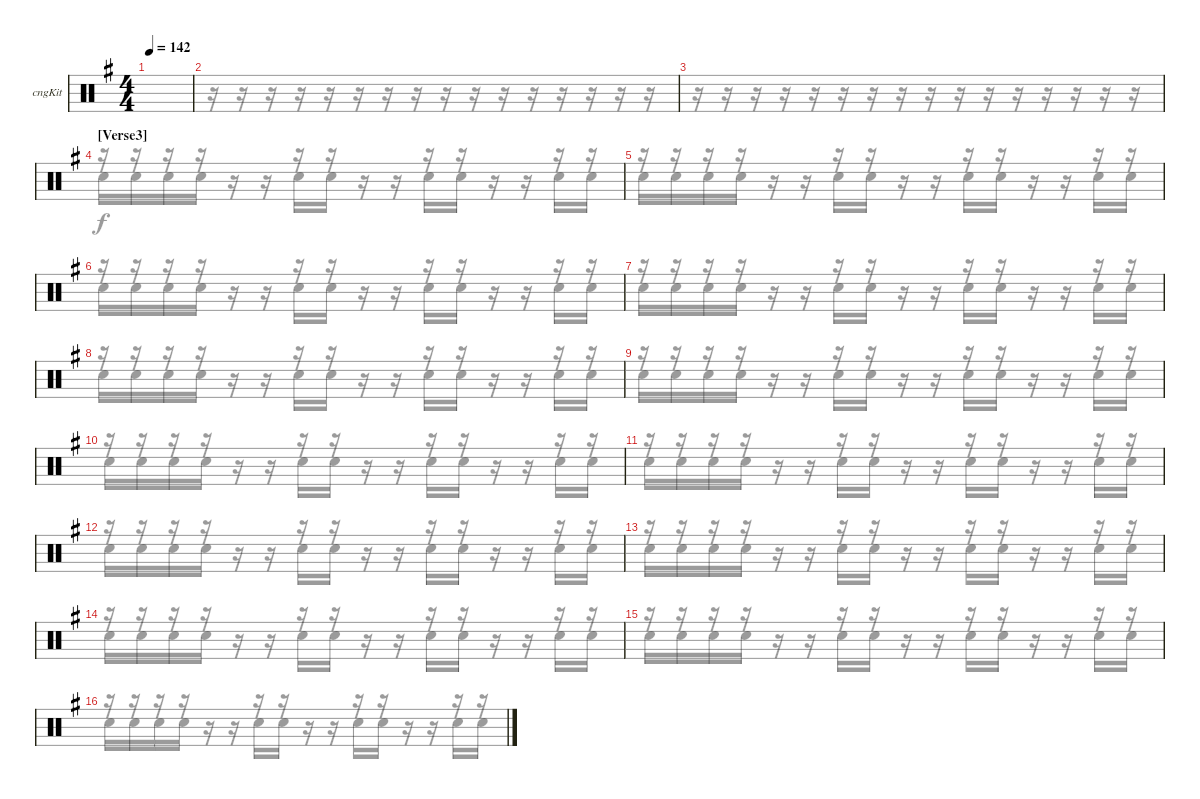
\bracketExtendMode groupsimilarinstruments
\firstSystemTrackNameOrientation horizontal
\otherSystemsTrackNameOrientation horizontal
\track ("Congas" "cngKit") {instrument percussion}
\staff {score}
\articulation defaults
\voice
\ts (4 4)
\tempo 142
\clef neutral
\ks eminor
|
|
|
\section ("" "[Verse3]")
|
|
|
|
|
|
|
|
|
|
|
|
\voice
\clef neutral
\ks eminor
|
r.16 r.16 r.16 r.16 r.16 r.16 r.16 r.16 r.16 r.16 r.16 r.16 r.16 r.16 r.16 r.16 |
r.16 r.16 r.16 r.16 r.16 r.16 r.16 r.16 r.16 r.16 r.16 r.16 r.16 r.16 r.16 r.16 |
r.16 r.16 r.16 r.16 r.16 r.16 r.16 r.16 r.16 r.16 r.16 r.16 r.16 r.16 r.16 r.16 |
r.16 r.16 r.16 r.16 r.16 r.16 r.16 r.16 r.16 r.16 r.16 r.16 r.16 r.16 r.16 r.16 |
r.16 r.16 r.16 r.16 r.16 r.16 r.16 r.16 r.16 r.16 r.16 r.16 r.16 r.16 r.16 r.16 |
r.16 r.16 r.16 r.16 r.16 r.16 r.16 r.16 r.16 r.16 r.16 r.16 r.16 r.16 r.16 r.16 |
r.16 r.16 r.16 r.16 r.16 r.16 r.16 r.16 r.16 r.16 r.16 r.16 r.16 r.16 r.16 r.16 |
r.16 r.16 r.16 r.16 r.16 r.16 r.16 r.16 r.16 r.16 r.16 r.16 r.16 r.16 r.16 r.16 |
r.16 r.16 r.16 r.16 r.16 r.16 r.16 r.16 r.16 r.16 r.16 r.16 r.16 r.16 r.16 r.16 |
r.16 r.16 r.16 r.16 r.16 r.16 r.16 r.16 r.16 r.16 r.16 r.16 r.16 r.16 r.16 r.16 |
r.16 r.16 r.16 r.16 r.16 r.16 r.16 r.16 r.16 r.16 r.16 r.16 r.16 r.16 r.16 r.16 |
r.16 r.16 r.16 r.16 r.16 r.16 r.16 r.16 r.16 r.16 r.16 r.16 r.16 r.16 r.16 r.16 |
r.16 r.16 r.16 r.16 r.16 r.16 r.16 r.16 r.16 r.16 r.16 r.16 r.16 r.16 r.16 r.16 |
r.16 r.16 r.16 r.16 r.16 r.16 r.16 r.16 r.16 r.16 r.16 r.16 r.16 r.16 r.16 r.16 |
r.16 r.16 r.16 r.16 r.16 r.16 r.16 r.16 r.16 r.16 r.16 r.16 r.16 r.16 r.16 r.16
\voice
\clef neutral
\ottava regular
\simile none
\ks eminor
|
|
|
"Snare (hit) 2".16 "Snare (hit) 2".16 "Snare (hit) 2".16 "Snare (hit) 2".16 r.16 r.16 "Snare (hit) 2".16 "Snare (hit) 2".16 r.16 r.16 "Snare (hit) 2".16 "Snare (hit) 2".16 r.16 r.16 "Snare (hit) 2".16 "Snare (hit) 2".16 |
"Snare (hit) 2".16 "Snare (hit) 2".16 "Snare (hit) 2".16 "Snare (hit) 2".16 r.16 r.16 "Snare (hit) 2".16 "Snare (hit) 2".16 r.16 r.16 "Snare (hit) 2".16 "Snare (hit) 2".16 r.16 r.16 "Snare (hit) 2".16 "Snare (hit) 2".16 |
"Snare (hit) 2".16 "Snare (hit) 2".16 "Snare (hit) 2".16 "Snare (hit) 2".16 r.16 r.16 "Snare (hit) 2".16 "Snare (hit) 2".16 r.16 r.16 "Snare (hit) 2".16 "Snare (hit) 2".16 r.16 r.16 "Snare (hit) 2".16 "Snare (hit) 2".16 |
"Snare (hit) 2".16 "Snare (hit) 2".16 "Snare (hit) 2".16 "Snare (hit) 2".16 r.16 r.16 "Snare (hit) 2".16 "Snare (hit) 2".16 r.16 r.16 "Snare (hit) 2".16 "Snare (hit) 2".16 r.16 r.16 "Snare (hit) 2".16 "Snare (hit) 2".16 |
"Snare (hit) 2".16 "Snare (hit) 2".16 "Snare (hit) 2".16 "Snare (hit) 2".16 r.16 r.16 "Snare (hit) 2".16 "Snare (hit) 2".16 r.16 r.16 "Snare (hit) 2".16 "Snare (hit) 2".16 r.16 r.16 "Snare (hit) 2".16 "Snare (hit) 2".16 |
"Snare (hit) 2".16 "Snare (hit) 2".16 "Snare (hit) 2".16 "Snare (hit) 2".16 r.16 r.16 "Snare (hit) 2".16 "Snare (hit) 2".16 r.16 r.16 "Snare (hit) 2".16 "Snare (hit) 2".16 r.16 r.16 "Snare (hit) 2".16 "Snare (hit) 2".16 |
"Snare (hit) 2".16 "Snare (hit) 2".16 "Snare (hit) 2".16 "Snare (hit) 2".16 r.16 r.16 "Snare (hit) 2".16 "Snare (hit) 2".16 r.16 r.16 "Snare (hit) 2".16 "Snare (hit) 2".16 r.16 r.16 "Snare (hit) 2".16 "Snare (hit) 2".16 |
"Snare (hit) 2".16 "Snare (hit) 2".16 "Snare (hit) 2".16 "Snare (hit) 2".16 r.16 r.16 "Snare (hit) 2".16 "Snare (hit) 2".16 r.16 r.16 "Snare (hit) 2".16 "Snare (hit) 2".16 r.16 r.16 "Snare (hit) 2".16 "Snare (hit) 2".16 |
"Snare (hit) 2".16 "Snare (hit) 2".16 "Snare (hit) 2".16 "Snare (hit) 2".16 r.16 r.16 "Snare (hit) 2".16 "Snare (hit) 2".16 r.16 r.16 "Snare (hit) 2".16 "Snare (hit) 2".16 r.16 r.16 "Snare (hit) 2".16 "Snare (hit) 2".16 |
"Snare (hit) 2".16 "Snare (hit) 2".16 "Snare (hit) 2".16 "Snare (hit) 2".16 r.16 r.16 "Snare (hit) 2".16 "Snare (hit) 2".16 r.16 r.16 "Snare (hit) 2".16 "Snare (hit) 2".16 r.16 r.16 "Snare (hit) 2".16 "Snare (hit) 2".16 |
"Snare (hit) 2".16 "Snare (hit) 2".16 "Snare (hit) 2".16 "Snare (hit) 2".16 r.16 r.16 "Snare (hit) 2".16 "Snare (hit) 2".16 r.16 r.16 "Snare (hit) 2".16 "Snare (hit) 2".16 r.16 r.16 "Snare (hit) 2".16 "Snare (hit) 2".16 |
"Snare (hit) 2".16 "Snare (hit) 2".16 "Snare (hit) 2".16 "Snare (hit) 2".16 r.16 r.16 "Snare (hit) 2".16 "Snare (hit) 2".16 r.16 r.16 "Snare (hit) 2".16 "Snare (hit) 2".16 r.16 r.16 "Snare (hit) 2".16 "Snare (hit) 2".16 |
"Snare (hit) 2".16 "Snare (hit) 2".16 "Snare (hit) 2".16 "Snare (hit) 2".16 r.16 r.16 "Snare (hit) 2".16 "Snare (hit) 2".16 r.16 r.16 "Snare (hit) 2".16 "Snare (hit) 2".16 r.16 r.16 "Snare (hit) 2".16 "Snare (hit) 2".16
